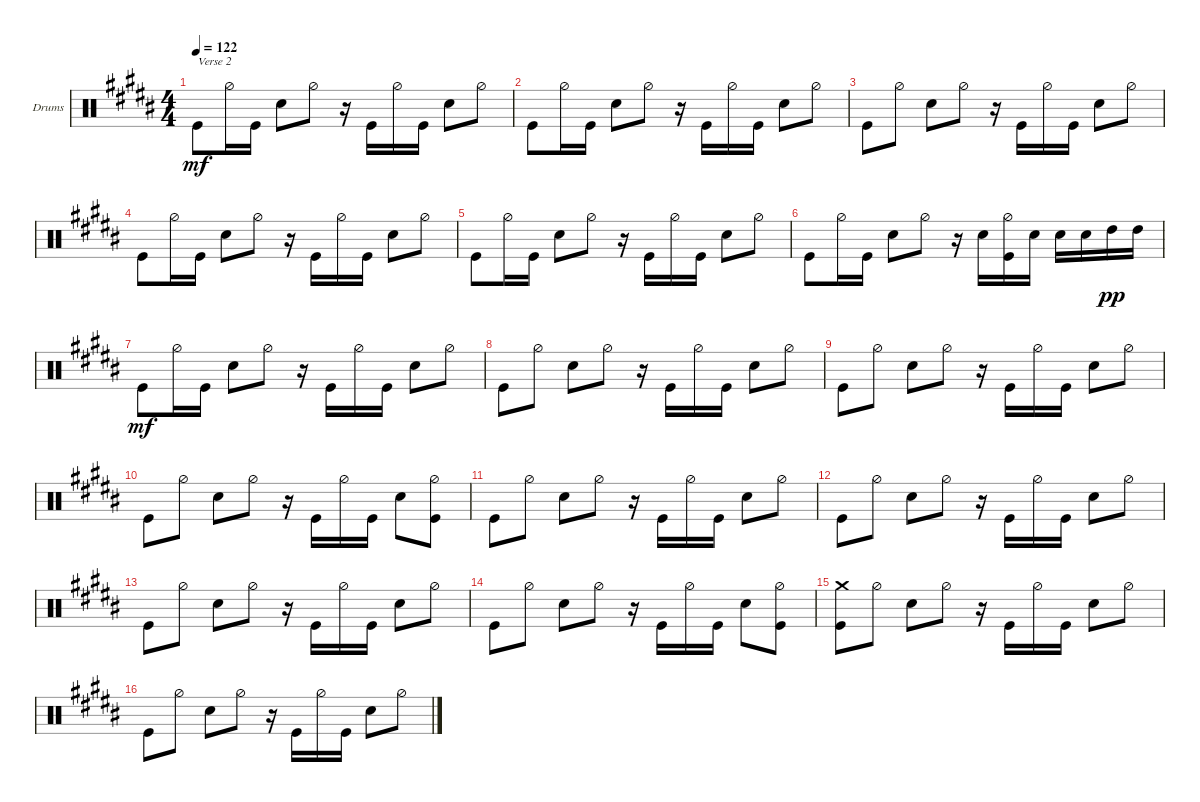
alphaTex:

\defaultSystemsLayout 4
\bracketExtendMode groupsimilarinstruments
\firstSystemTrackNameOrientation horizontal
\otherSystemsTrackNameOrientation horizontal
\track ("Drumkit" "Drums") {multiBarRest instrument percussion}
\staff {score}
\articulation defaults
\ts (4 4)
\tempo 122
\clef neutral
\ks b "Kick (hit)".8{txt "Verse 2" dy mf} "Hi-Hat (half)".16 "Kick (hit)".16 "Snare (hit) 2".8 "Hi-Hat (half)".8
r.16 "Kick (hit)".16 "Hi-Hat (half)".16 "Kick (hit)".16 "Snare (hit) 2".8 "Hi-Hat (half)".8 |
"Kick (hit)".8 "Hi-Hat (half)".16 "Kick (hit)".16 "Snare (hit) 2".8 "Hi-Hat (half)".8 r.16 "Kick (hit)".16 "Hi-Hat (half)".16 "Kick (hit)".16 "Snare (hit) 2".8 "Hi-Hat (half)".8 |
"Kick (hit)".8 "Hi-Hat (half)".8 "Snare (hit) 2".8 "Hi-Hat (half)".8 r.16 "Kick (hit)".16 "Hi-Hat (half)".16 "Kick (hit)".16 "Snare (hit) 2".8 "Hi-Hat (half)".8 |
"Kick (hit)".8 "Hi-Hat (half)".16 "Kick (hit)".16 "Snare (hit) 2".8 "Hi-Hat (half)".8 r.16 "Kick (hit)".16 "Hi-Hat (half)".16 "Kick (hit)".16 "Snare (hit) 2".8 "Hi-Hat (half)".8 |
"Kick (hit)".8 "Hi-Hat (half)".16 "Kick (hit)".16 "Snare (hit) 2".8 "Hi-Hat (half)".8 r.16 "Kick (hit)".16 "Hi-Hat (half)".16 "Kick (hit)".16 "Snare (hit) 2".8 "Hi-Hat (half)".8 |
"Kick (hit)".8 "Hi-Hat (half)".16 "Kick (hit)".16 "Snare (hit) 2".8 "Hi-Hat (half)".8 r.16 "Snare (hit) 2".16 ("Hi-Hat (half)" "Kick (hit)").16 "Snare (hit) 2".16 "Snare (hit) 2".16 "Snare (hit) 2".16 "High Tom (hit)".16{dy pp} "High Tom (hit)".16 |
"Kick (hit)".8{dy mf} "Hi-Hat (half)".16 "Kick (hit)".16 "Snare (hit) 2".8 "Hi-Hat (half)".8 r.16 "Kick (hit)".16 "Hi-Hat (half)".16 "Kick (hit)".16 "Snare (hit) 2".8 "Hi-Hat (half)".8 |
"Kick (hit)".8 "Hi-Hat (half)".8 "Snare (hit) 2".8 "Hi-Hat (half)".8 r.16 "Kick (hit)".16 "Hi-Hat (half)".16 "Kick (hit)".16 "Snare (hit) 2".8 "Hi-Hat (half)".8 |
"Kick (hit)".8 "Hi-Hat (half)".8 "Snare (hit) 2".8 "Hi-Hat (half)".8 r.16 "Kick (hit)".16 "Hi-Hat (half)".16 "Kick (hit)".16 "Snare (hit) 2".8 "Hi-Hat (half)".8 |
"Kick (hit)".8 "Hi-Hat (half)".8 "Snare (hit) 2".8 "Hi-Hat (half)".8 r.16 "Kick (hit)".16 "Hi-Hat (half)".16 "Kick (hit)".16 "Snare (hit) 2".8 ("Hi-Hat (half)" "Kick (hit)").8 |
"Kick (hit)".8 "Hi-Hat (half)".8 "Snare (hit) 2".8 "Hi-Hat (half)".8 r.16 "Kick (hit)".16 "Hi-Hat (half)".16 "Kick (hit)".16 "Snare (hit) 2".8 "Hi-Hat (half)".8 |
"Kick (hit)".8 "Hi-Hat (half)".8 "Snare (hit) 2".8 "Hi-Hat (half)".8 r.16 "Kick (hit)".16 "Hi-Hat (half)".16 "Kick (hit)".16 "Snare (hit) 2".8 "Hi-Hat (half)".8 |
"Kick (hit)".8 "Hi-Hat (half)".8 "Snare (hit) 2".8 "Hi-Hat (half)".8 r.16 "Kick (hit)".16 "Hi-Hat (half)".16 "Kick (hit)".16 "Snare (hit) 2".8 "Hi-Hat (half)".8 |
"Kick (hit)".8 "Hi-Hat (half)".8 "Snare (hit) 2".8 "Hi-Hat (half)".8 r.16 "Kick (hit)".16 "Hi-Hat (half)".16 "Kick (hit)".16 "Snare (hit) 2".8 ("Hi-Hat (half)" "Kick (hit)").8 |
("Kick (hit)" "Crash medium (hit)").8 "Hi-Hat (half)".8 "Snare (hit) 2".8 "Hi-Hat (half)".8 r.16 "Kick (hit)".16 "Hi-Hat (half)".16 "Kick (hit)".16 "Snare (hit) 2".8 "Hi-Hat (half)".8 |
"Kick (hit)".8 "Hi-Hat (half)".8 "Snare (hit) 2".8 "Hi-Hat (half)".8 r.16 "Kick (hit)".16 "Hi-Hat (half)".16 "Kick (hit)".16 "Snare (hit) 2".8 "Hi-Hat (half)".8
